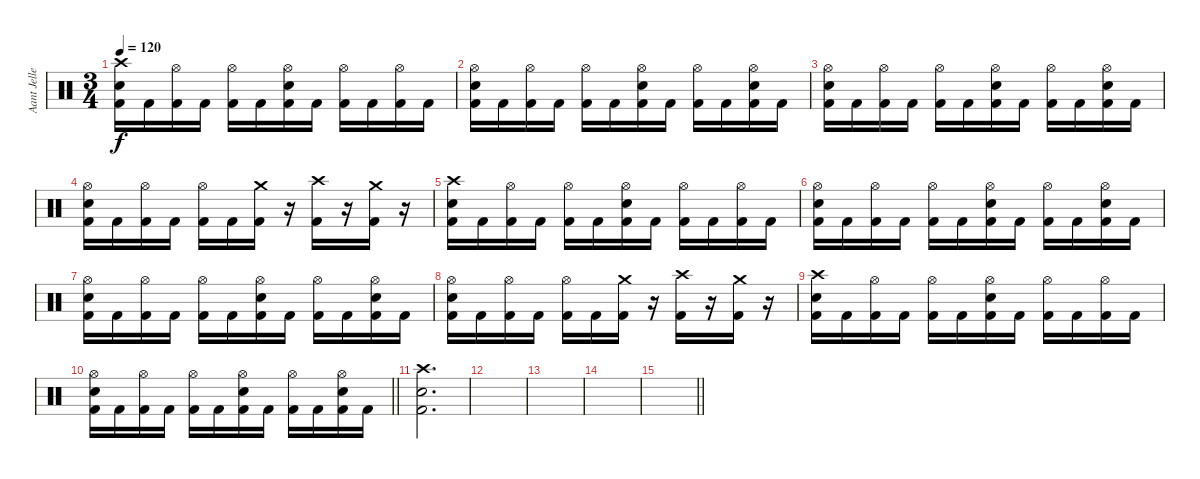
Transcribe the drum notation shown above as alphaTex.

\track ("Aant Jelle" "Aant Jelle") {instrument percussion}
\staff {score}
\articulation defaults
\ts (3 4)
\tempo 120
\clef neutral
\ks c
("Crash high (hit)" "Snare (hit) 2" "Kick (hit) 2").16{dy f} "Kick (hit) 2".16 ("Hi-Hat (open)" "Kick (hit) 2").16 "Kick (hit) 2".16 ("Hi-Hat (open)" "Kick (hit) 2").16 "Kick (hit) 2".16 ("Hi-Hat (open)" "Snare (hit) 2" "Kick (hit) 2").16 "Kick (hit) 2".16 ("Hi-Hat (open)" "Kick (hit) 2").16 "Kick (hit) 2".16 ("Hi-Hat (open)" "Kick (hit) 2").16 "Kick (hit) 2".16 |
("Hi-Hat (open)" "Snare (hit) 2" "Kick (hit) 2").16 "Kick (hit) 2".16 ("Hi-Hat (open)" "Kick (hit) 2").16 "Kick (hit) 2".16 ("Hi-Hat (open)" "Kick (hit) 2").16 "Kick (hit) 2".16 ("Hi-Hat (open)" "Snare (hit) 2" "Kick (hit) 2").16 "Kick (hit) 2".16 ("Hi-Hat (open)" "Kick (hit) 2").16 "Kick (hit) 2".16 ("Hi-Hat (open)" "Snare (hit) 2" "Kick (hit) 2").16 "Kick (hit) 2".16 |
("Hi-Hat (open)" "Snare (hit) 2" "Kick (hit) 2").16 "Kick (hit) 2".16 ("Hi-Hat (open)" "Kick (hit) 2").16 "Kick (hit) 2".16 ("Hi-Hat (open)" "Kick (hit) 2").16 "Kick (hit) 2".16 ("Hi-Hat (open)" "Snare (hit) 2" "Kick (hit) 2").16 "Kick (hit) 2".16 ("Hi-Hat (open)" "Kick (hit) 2").16 "Kick (hit) 2".16 ("Hi-Hat (open)" "Snare (hit) 2" "Kick (hit) 2").16 "Kick (hit) 2".16 |
("Hi-Hat (open)" "Snare (hit) 2" "Kick (hit) 2").16 "Kick (hit) 2".16 ("Hi-Hat (open)" "Kick (hit) 2").16 "Kick (hit) 2".16 ("Hi-Hat (open)" "Kick (hit) 2").16 "Kick (hit) 2".16 ("Crash medium (hit)" "Kick (hit) 2").16 r.16 ("Crash high (hit)" "Kick (hit) 2").16 r.16 ("Crash medium (hit)" "Kick (hit) 2").16 r.16 |
("Crash high (hit)" "Snare (hit) 2" "Kick (hit) 2").16 "Kick (hit) 2".16 ("Hi-Hat (open)" "Kick (hit) 2").16 "Kick (hit) 2".16 ("Hi-Hat (open)" "Kick (hit) 2").16 "Kick (hit) 2".16 ("Hi-Hat (open)" "Snare (hit) 2" "Kick (hit) 2").16 "Kick (hit) 2".16 ("Hi-Hat (open)" "Kick (hit) 2").16 "Kick (hit) 2".16 ("Hi-Hat (open)" "Kick (hit) 2").16 "Kick (hit) 2".16 |
("Hi-Hat (open)" "Snare (hit) 2" "Kick (hit) 2").16 "Kick (hit) 2".16 ("Hi-Hat (open)" "Kick (hit) 2").16 "Kick (hit) 2".16 ("Hi-Hat (open)" "Kick (hit) 2").16 "Kick (hit) 2".16 ("Hi-Hat (open)" "Snare (hit) 2" "Kick (hit) 2").16 "Kick (hit) 2".16 ("Hi-Hat (open)" "Kick (hit) 2").16 "Kick (hit) 2".16 ("Hi-Hat (open)" "Snare (hit) 2" "Kick (hit) 2").16 "Kick (hit) 2".16 |
("Hi-Hat (open)" "Snare (hit) 2" "Kick (hit) 2").16 "Kick (hit) 2".16 ("Hi-Hat (open)" "Kick (hit) 2").16 "Kick (hit) 2".16 ("Hi-Hat (open)" "Kick (hit) 2").16 "Kick (hit) 2".16 ("Hi-Hat (open)" "Snare (hit) 2" "Kick (hit) 2").16 "Kick (hit) 2".16 ("Hi-Hat (open)" "Kick (hit) 2").16 "Kick (hit) 2".16 ("Hi-Hat (open)" "Snare (hit) 2" "Kick (hit) 2").16 "Kick (hit) 2".16 |
("Hi-Hat (open)" "Snare (hit) 2" "Kick (hit) 2").16 "Kick (hit) 2".16 ("Hi-Hat (open)" "Kick (hit) 2").16 "Kick (hit) 2".16 ("Hi-Hat (open)" "Kick (hit) 2").16 "Kick (hit) 2".16 ("Crash medium (hit)" "Kick (hit) 2").16 r.16 ("Crash high (hit)" "Kick (hit) 2").16 r.16 ("Crash medium (hit)" "Kick (hit) 2").16 r.16 |
("Crash high (hit)" "Snare (hit) 2" "Kick (hit) 2").16 "Kick (hit) 2".16 ("Hi-Hat (open)" "Kick (hit) 2").16 "Kick (hit) 2".16 ("Hi-Hat (open)" "Kick (hit) 2").16 "Kick (hit) 2".16 ("Hi-Hat (open)" "Snare (hit) 2" "Kick (hit) 2").16 "Kick (hit) 2".16 ("Hi-Hat (open)" "Kick (hit) 2").16 "Kick (hit) 2".16 ("Hi-Hat (open)" "Kick (hit) 2").16 "Kick (hit) 2".16 |
\barLineRight lightlight
("Hi-Hat (open)" "Snare (hit) 2" "Kick (hit) 2").16 "Kick (hit) 2".16 ("Hi-Hat (open)" "Kick (hit) 2").16 "Kick (hit) 2".16 ("Hi-Hat (open)" "Kick (hit) 2").16 "Kick (hit) 2".16 ("Hi-Hat (open)" "Snare (hit) 2" "Kick (hit) 2").16 "Kick (hit) 2".16 ("Hi-Hat (open)" "Kick (hit) 2").16 "Kick (hit) 2".16 ("Hi-Hat (open)" "Snare (hit) 2" "Kick (hit) 2").16 "Kick (hit) 2".16 |
("Crash high (hit)" "Snare (hit) 2" "Kick (hit) 2").2{d} |
|
|
|
\barLineRight lightlight
